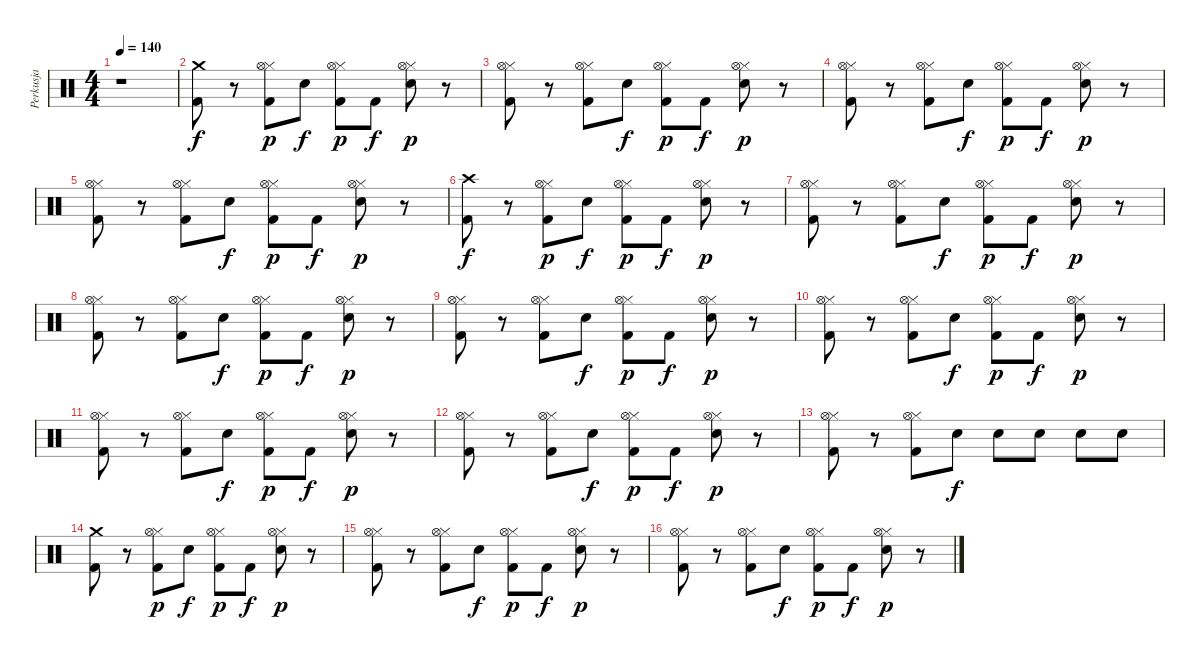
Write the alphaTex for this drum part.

\track ("Perkusja" "Perkusja") {instrument percussion}
\staff {score}
\articulation defaults
\ts (4 4)
\tempo 140
\clef neutral
\ks c
r.1{dy f} |
("Kick (hit) 2" "Crash medium (hit)").8 r.8 ("Kick (hit) 2" "Hi-Hat (closed)" "Hi-Hat (open)").8{dy p} "Electric Snare (hit)".8{dy f} ("Kick (hit) 2" "Hi-Hat (closed)" "Hi-Hat (open)").8{dy p} "Kick (hit) 2".8{dy f} ("Electric Snare (hit)" "Hi-Hat (closed)" "Hi-Hat (open)").8{dy p} r.8 |
("Kick (hit) 2" "Hi-Hat (closed)" "Hi-Hat (open)").8 r.8 ("Kick (hit) 2" "Hi-Hat (closed)" "Hi-Hat (open)").8 "Electric Snare (hit)".8{dy f} ("Kick (hit) 2" "Hi-Hat (closed)" "Hi-Hat (open)").8{dy p} "Kick (hit) 2".8{dy f} ("Electric Snare (hit)" "Hi-Hat (closed)" "Hi-Hat (open)").8{dy p} r.8 |
("Kick (hit) 2" "Hi-Hat (closed)" "Hi-Hat (open)").8 r.8 ("Kick (hit) 2" "Hi-Hat (closed)" "Hi-Hat (open)").8 "Electric Snare (hit)".8{dy f} ("Kick (hit) 2" "Hi-Hat (closed)" "Hi-Hat (open)").8{dy p} "Kick (hit) 2".8{dy f} ("Electric Snare (hit)" "Hi-Hat (closed)" "Hi-Hat (open)").8{dy p} r.8 |
("Kick (hit) 2" "Hi-Hat (closed)" "Hi-Hat (open)").8 r.8 ("Kick (hit) 2" "Hi-Hat (closed)" "Hi-Hat (open)").8 "Electric Snare (hit)".8{dy f} ("Kick (hit) 2" "Hi-Hat (closed)" "Hi-Hat (open)").8{dy p} "Kick (hit) 2".8{dy f} ("Electric Snare (hit)" "Hi-Hat (closed)" "Hi-Hat (open)").8{dy p} r.8 |
("Kick (hit) 2" "Crash high (hit)").8{dy f} r.8 ("Kick (hit) 2" "Hi-Hat (closed)" "Hi-Hat (open)").8{dy p} "Electric Snare (hit)".8{dy f} ("Kick (hit) 2" "Hi-Hat (closed)" "Hi-Hat (open)").8{dy p} "Kick (hit) 2".8{dy f} ("Electric Snare (hit)" "Hi-Hat (closed)" "Hi-Hat (open)").8{dy p} r.8 |
("Kick (hit) 2" "Hi-Hat (closed)" "Hi-Hat (open)").8 r.8 ("Kick (hit) 2" "Hi-Hat (closed)" "Hi-Hat (open)").8 "Electric Snare (hit)".8{dy f} ("Kick (hit) 2" "Hi-Hat (closed)" "Hi-Hat (open)").8{dy p} "Kick (hit) 2".8{dy f} ("Electric Snare (hit)" "Hi-Hat (closed)" "Hi-Hat (open)").8{dy p} r.8 |
("Kick (hit) 2" "Hi-Hat (closed)" "Hi-Hat (open)").8 r.8 ("Kick (hit) 2" "Hi-Hat (closed)" "Hi-Hat (open)").8 "Electric Snare (hit)".8{dy f} ("Kick (hit) 2" "Hi-Hat (closed)" "Hi-Hat (open)").8{dy p} "Kick (hit) 2".8{dy f} ("Electric Snare (hit)" "Hi-Hat (closed)" "Hi-Hat (open)").8{dy p} r.8 |
("Kick (hit) 2" "Hi-Hat (closed)" "Hi-Hat (open)").8 r.8 ("Kick (hit) 2" "Hi-Hat (closed)" "Hi-Hat (open)").8 "Electric Snare (hit)".8{dy f} ("Kick (hit) 2" "Hi-Hat (closed)" "Hi-Hat (open)").8{dy p} "Kick (hit) 2".8{dy f} ("Electric Snare (hit)" "Hi-Hat (closed)" "Hi-Hat (open)").8{dy p} r.8 |
("Kick (hit) 2" "Hi-Hat (closed)" "Hi-Hat (open)").8 r.8 ("Kick (hit) 2" "Hi-Hat (closed)" "Hi-Hat (open)").8 "Electric Snare (hit)".8{dy f} ("Kick (hit) 2" "Hi-Hat (closed)" "Hi-Hat (open)").8{dy p} "Kick (hit) 2".8{dy f} ("Electric Snare (hit)" "Hi-Hat (closed)" "Hi-Hat (open)").8{dy p} r.8 |
("Kick (hit) 2" "Hi-Hat (closed)" "Hi-Hat (open)").8 r.8 ("Kick (hit) 2" "Hi-Hat (closed)" "Hi-Hat (open)").8 "Electric Snare (hit)".8{dy f} ("Kick (hit) 2" "Hi-Hat (closed)" "Hi-Hat (open)").8{dy p} "Kick (hit) 2".8{dy f} ("Electric Snare (hit)" "Hi-Hat (closed)" "Hi-Hat (open)").8{dy p} r.8 |
("Kick (hit) 2" "Hi-Hat (closed)" "Hi-Hat (open)").8 r.8 ("Kick (hit) 2" "Hi-Hat (closed)" "Hi-Hat (open)").8 "Electric Snare (hit)".8{dy f} ("Kick (hit) 2" "Hi-Hat (closed)" "Hi-Hat (open)").8{dy p} "Kick (hit) 2".8{dy f} ("Electric Snare (hit)" "Hi-Hat (closed)" "Hi-Hat (open)").8{dy p} r.8 |
("Kick (hit) 2" "Hi-Hat (closed)" "Hi-Hat (open)").8 r.8 ("Kick (hit) 2" "Hi-Hat (closed)" "Hi-Hat (open)").8 "Electric Snare (hit)".8{dy f} "Electric Snare (hit)".8 "Electric Snare (hit)".8 "Electric Snare (hit)".8 "Electric Snare (hit)".8 |
("Kick (hit) 2" "Crash medium (hit)").8 r.8 ("Kick (hit) 2" "Hi-Hat (closed)" "Hi-Hat (open)").8{dy p} "Electric Snare (hit)".8{dy f} ("Kick (hit) 2" "Hi-Hat (closed)" "Hi-Hat (open)").8{dy p} "Kick (hit) 2".8{dy f} ("Electric Snare (hit)" "Hi-Hat (closed)" "Hi-Hat (open)").8{dy p} r.8 |
("Kick (hit) 2" "Hi-Hat (closed)" "Hi-Hat (open)").8 r.8 ("Kick (hit) 2" "Hi-Hat (closed)" "Hi-Hat (open)").8 "Electric Snare (hit)".8{dy f} ("Kick (hit) 2" "Hi-Hat (closed)" "Hi-Hat (open)").8{dy p} "Kick (hit) 2".8{dy f} ("Electric Snare (hit)" "Hi-Hat (closed)" "Hi-Hat (open)").8{dy p} r.8 |
("Kick (hit) 2" "Hi-Hat (closed)" "Hi-Hat (open)").8 r.8 ("Kick (hit) 2" "Hi-Hat (closed)" "Hi-Hat (open)").8 "Electric Snare (hit)".8{dy f} ("Kick (hit) 2" "Hi-Hat (closed)" "Hi-Hat (open)").8{dy p} "Kick (hit) 2".8{dy f} ("Electric Snare (hit)" "Hi-Hat (closed)" "Hi-Hat (open)").8{dy p} r.8
